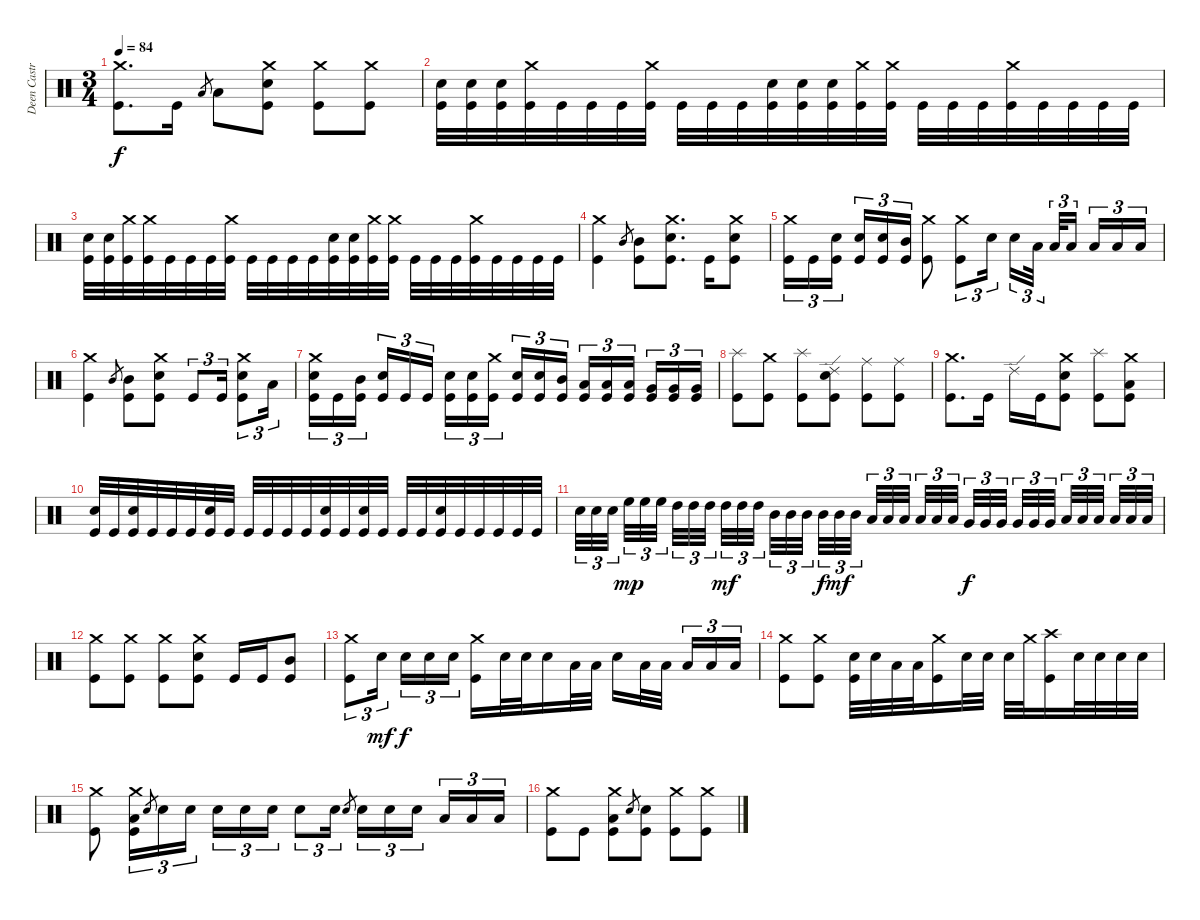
\track ("Deen Castronovo" "Deen Castr") {instrument percussion}
\staff {score}
\articulation defaults
\ts (3 4)
\tempo 84
\clef neutral
\ks c
("Crash medium (hit)" "Kick (hit)").8{d dy f} "Kick (hit)".16 "Low Tom (hit)".8{gr} "Low Tom (hit)".8 ("Crash medium (hit)" "Snare (hit) 2" "Kick (hit)").8 ("Crash medium (hit)" "Kick (hit)").8 ("Crash medium (hit)" "Kick (hit)").8 |
("Snare (hit) 2" "Kick (hit)").32 ("Snare (hit) 2" "Kick (hit)").32 ("Snare (hit) 2" "Kick (hit)").32 ("Crash medium (hit)" "Kick (hit)").32 "Kick (hit)".32 "Kick (hit)".32 "Kick (hit)".32 ("Crash medium (hit)" "Kick (hit)").32 "Kick (hit)".32 "Kick (hit)".32 "Kick (hit)".32 ("Snare (hit) 2" "Kick (hit)").32 ("Snare (hit) 2" "Kick (hit)").32 ("Snare (hit) 2" "Kick (hit)").32 ("Crash medium (hit)" "Kick (hit)").32 ("Crash medium (hit)" "Kick (hit)").32 "Kick (hit)".32 "Kick (hit)".32 "Kick (hit)".32 ("Crash medium (hit)" "Kick (hit)").32 "Kick (hit)".32 "Kick (hit)".32 "Kick (hit)".32 "Kick (hit)".32 |
("Snare (hit) 2" "Kick (hit)").32 ("Snare (hit) 2" "Kick (hit)").32 ("Crash medium (hit)" "Kick (hit)").32 ("Crash medium (hit)" "Kick (hit)").32 "Kick (hit)".32 "Kick (hit)".32 "Kick (hit)".32 ("Crash medium (hit)" "Kick (hit)").32 "Kick (hit)".32 "Kick (hit)".32 "Kick (hit)".32 "Kick (hit)".32 ("Snare (hit) 2" "Kick (hit)").32 ("Snare (hit) 2" "Kick (hit)").32 ("Crash medium (hit)" "Kick (hit)").32 ("Crash medium (hit)" "Kick (hit)").32 "Kick (hit)".32 "Kick (hit)".32 "Kick (hit)".32 ("Crash medium (hit)" "Kick (hit)").32 "Kick (hit)".32 "Kick (hit)".32 "Kick (hit)".32 "Kick (hit)".32 |
("Crash medium (hit)" "Kick (hit)").4 "Mid Tom (hit)".8{gr} ("Mid Tom (hit)" "Kick (hit)").8 ("Crash medium (hit)" "Snare (hit) 2" "Kick (hit)").8{d} "Kick (hit)".16 ("Crash medium (hit)" "Snare (hit) 2" "Kick (hit)").8 |
("Crash medium (hit)" "Kick (hit)").16{tu (3 2)} "Kick (hit)".16{tu (3 2)} ("Snare (hit) 2" "Kick (hit)").16{tu (3 2)} ("Snare (hit) 2" "Kick (hit)").16{tu (3 2)} ("Snare (hit) 2" "Kick (hit)").16{tu (3 2)} ("Mid Tom (hit)" "Kick (hit)").16{tu (3 2)} ("Crash medium (hit)" "Kick (hit)").8 ("Crash medium (hit)" "Kick (hit)").8{tu (3 2)} "Snare (hit) 2".16{tu (3 2)} "Snare (hit) 2".16{tu (3 2)} "Low Tom (hit)".32{tu (3 2)} "Low Tom (hit)".32{tu (3 2)} "Low Tom (hit)".16{tu (3 2)} "Low Tom (hit)".16{tu (3 2)} "Low Tom (hit)".16{tu (3 2)} "Low Tom (hit)".16{tu (3 2)} |
("Crash medium (hit)" "Kick (hit)").4 "Mid Tom (hit)".8{gr} ("Mid Tom (hit)" "Kick (hit)").8 ("Crash medium (hit)" "Snare (hit) 2" "Kick (hit)").8 "Kick (hit)".8{tu (3 2)} "Kick (hit)".16{tu (3 2)} ("Crash medium (hit)" "Snare (hit) 2" "Kick (hit)").8{tu (3 2)} "Low Tom (hit)".16{tu (3 2)} |
("Crash medium (hit)" "Snare (hit) 2" "Kick (hit)").16{tu (3 2)} "Kick (hit)".16{tu (3 2)} ("Mid Tom (hit)" "Kick (hit)").16{tu (3 2)} ("Snare (hit) 2" "Kick (hit)").16{tu (3 2)} "Kick (hit)".16{tu (3 2)} "Kick (hit)".16{tu (3 2)} ("Snare (hit) 2" "Kick (hit)").16{tu (3 2)} ("Snare (hit) 2" "Kick (hit)").16{tu (3 2)} ("Crash medium (hit)" "Kick (hit)").16{tu (3 2)} ("Snare (hit) 2" "Kick (hit)").16{tu (3 2)} ("Snare (hit) 2" "Kick (hit)").16{tu (3 2)} ("Mid Tom (hit)" "Kick (hit)").16{tu (3 2)} ("Low Tom (hit)" "Kick (hit)").16{tu (3 2)} ("Low Tom (hit)" "Kick (hit)").16{tu (3 2)} ("Low Tom (hit)" "Kick (hit)").16{tu (3 2)} ("Very Low Tom (hit)" "Kick (hit)").16{tu (3 2)} ("Very Low Tom (hit)" "Kick (hit)").16{tu (3 2)} ("Very Low Tom (hit)" "Kick (hit)").16{tu (3 2)} |
("Splash (hit)" "Kick (hit)").8 ("Crash medium (hit)" "Kick (hit)").8 ("Splash (hit)" "Kick (hit)").8 ("Ride (edge) 2" "Snare (hit) 2" "Kick (hit)").8 ("Ride (middle)" "Kick (hit)").8 ("Ride (middle)" "Kick (hit)").8 |
("Crash medium (hit)" "Kick (hit)").8{d} "Kick (hit)".16 "Ride (edge) 2".16 "Kick (hit)".16 ("Crash medium (hit)" "Snare (hit) 2" "Kick (hit)").8 ("Splash (hit)" "Kick (hit)").8 ("Crash medium (hit)" "Low Tom (hit)" "Kick (hit)").8 |
("Snare (hit) 2" "Kick (hit)").32 "Kick (hit)".32 ("Snare (hit) 2" "Kick (hit)").32 "Kick (hit)".32 "Kick (hit)".32 "Kick (hit)".32 ("Snare (hit) 2" "Kick (hit)").32 "Kick (hit)".32 "Kick (hit)".32 "Kick (hit)".32 "Kick (hit)".32 "Kick (hit)".32 ("Snare (hit) 2" "Kick (hit)").32 "Kick (hit)".32 ("Snare (hit) 2" "Kick (hit)").32 "Kick (hit)".32 "Kick (hit)".32 "Kick (hit)".32 ("Snare (hit) 2" "Kick (hit)").32 "Kick (hit)".32 "Kick (hit)".32 "Kick (hit)".32 "Kick (hit)".32 "Kick (hit)".32 |
"Snare (hit) 2".32{tu (3 2)} "Snare (hit) 2".32{tu (3 2)} "Snare (hit) 2".32{tu (3 2)} "High Floor Tom (hit)".32{tu (3 2) dy mp} "High Floor Tom (hit)".32{tu (3 2)} "High Floor Tom (hit)".32{tu (3 2)} "High Tom (hit)".32{tu (3 2)} "High Tom (hit)".32{tu (3 2)} "High Tom (hit)".32{tu (3 2)} "High Tom (hit)".32{tu (3 2) dy mf} "High Tom (hit)".32{tu (3 2)} "High Tom (hit)".32{tu (3 2)} "Mid Tom (hit)".32{tu (3 2)} "Mid Tom (hit)".32{tu (3 2)} "Mid Tom (hit)".32{tu (3 2)} "Mid Tom (hit)".32{tu (3 2) dy f} "Mid Tom (hit)".32{tu (3 2) dy mf} "Mid Tom (hit)".32{tu (3 2)} "Low Tom (hit)".32{tu (3 2)} "Low Tom (hit)".32{tu (3 2)} "Low Tom (hit)".32{tu (3 2)} "Low Tom (hit)".32{tu (3 2)} "Low Tom (hit)".32{tu (3 2)} "Low Tom (hit)".32{tu (3 2)} "Very Low Tom (hit)".32{tu (3 2) dy f} "Very Low Tom (hit)".32{tu (3 2)} "Very Low Tom (hit)".32{tu (3 2)} "Very Low Tom (hit)".32{tu (3 2)} "Very Low Tom (hit)".32{tu (3 2)} "Very Low Tom (hit)".32{tu (3 2)} "Low Floor Tom (hit)".32{tu (3 2)} "Low Floor Tom (hit)".32{tu (3 2)} "Low Floor Tom (hit)".32{tu (3 2)} "Low Floor Tom (hit)".32{tu (3 2)} "Low Floor Tom (hit)".32{tu (3 2)} "Low Floor Tom (hit)".32{tu (3 2)} |
("Crash medium (hit)" "Kick (hit)").8 ("Crash medium (hit)" "Kick (hit)").8 ("Crash medium (hit)" "Kick (hit)").8 ("Crash medium (hit)" "Snare (hit) 2" "Kick (hit)").8 "Kick (hit)".16 "Kick (hit)".16 ("Mid Tom (hit)" "Kick (hit)").8 |
("Crash medium (hit)" "Kick (hit)").8{tu (3 2)} "Snare (hit) 2".16{tu (3 2) dy mf} "Snare (hit) 2".16{tu (3 2) dy f} "Snare (hit) 2".16{tu (3 2)} "Snare (hit) 2".16{tu (3 2)} ("Crash medium (hit)" "Kick (hit)").16 "Snare (hit) 2".32 "Snare (hit) 2".32 "Snare (hit) 2".16 "Low Tom (hit)".32 "Low Tom (hit)".32 "Snare (hit) 2".16 "Low Tom (hit)".32 "Low Tom (hit)".32 "Low Tom (hit)".16{tu (3 2)} "Low Tom (hit)".16{tu (3 2)} "Low Tom (hit)".16{tu (3 2)} |
("Crash medium (hit)" "Kick (hit)").8 ("Crash medium (hit)" "Kick (hit)").8 ("Snare (hit) 2" "Kick (hit)").32 "Snare (hit) 2".32 "Low Tom (hit)".32 "Low Tom (hit)".32 ("Crash medium (hit)" "Kick (hit)").16 "Snare (hit) 2".32 "Snare (hit) 2".32 "Snare (hit) 2".32 "Crash medium (hit)".32 ("Crash high (hit)" "Kick (hit)").16 "Snare (hit) 2".32 "Snare (hit) 2".32 "Snare (hit) 2".32 "Snare (hit) 2".32 |
("Crash medium (hit)" "Kick (hit)").8 ("Crash medium (hit)" "Low Tom (hit)" "Kick (hit)").16{tu (3 2)} "Snare (hit) 2".8{gr} "Snare (hit) 2".16{tu (3 2)} "Snare (hit) 2".16{tu (3 2)} "Snare (hit) 2".16{tu (3 2)} "Snare (hit) 2".16{tu (3 2)} "Snare (hit) 2".16{tu (3 2)} "Snare (hit) 2".8{tu (3 2)} "Snare (hit) 2".16{tu (3 2)} "Snare (hit) 2".8{gr} "Snare (hit) 2".16{tu (3 2)} "Snare (hit) 2".16{tu (3 2)} "Snare (hit) 2".16{tu (3 2)} "Low Tom (hit)".16{tu (3 2)} "Low Tom (hit)".16{tu (3 2)} "Low Tom (hit)".16{tu (3 2)} |
("Crash medium (hit)" "Kick (hit)").8 "Kick (hit)".8 ("Crash medium (hit)" "Low Tom (hit)" "Kick (hit)").8 "Snare (hit) 2".8{gr} ("Snare (hit) 2" "Kick (hit)").8 ("Crash medium (hit)" "Kick (hit)").8 ("Crash medium (hit)" "Kick (hit)").8
